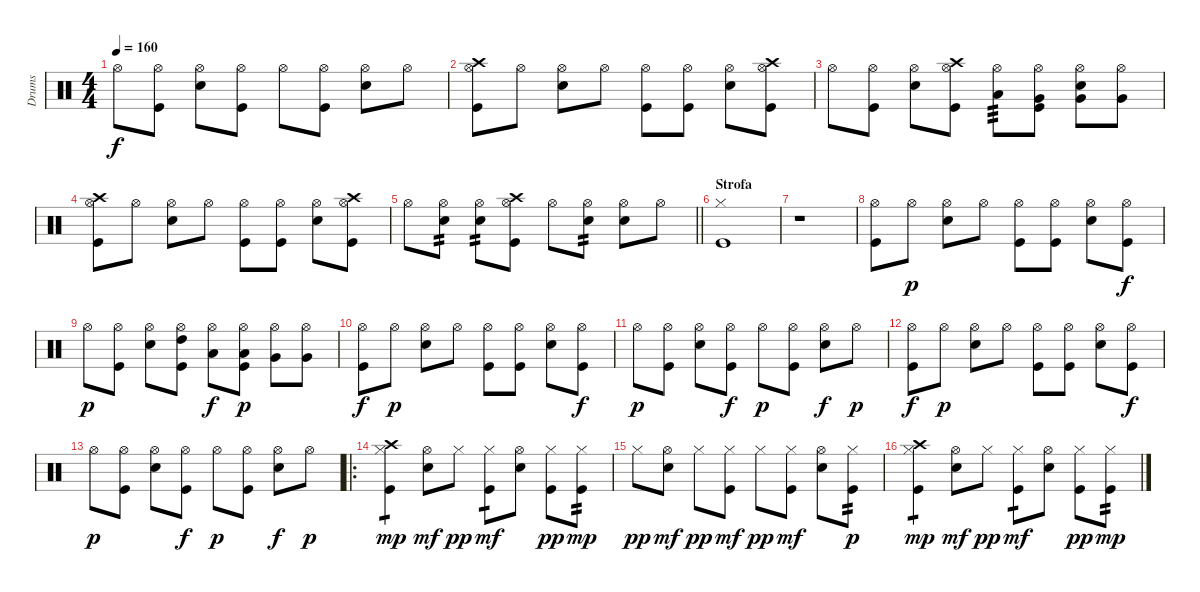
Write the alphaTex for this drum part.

\track ("Drums" "Drums") {instrument percussion}
\staff {score}
\articulation defaults
\ts (4 4)
\tempo 160
\clef neutral
\ks c "Hi-Hat (open)".8{dy f}
("Kick (hit)" "Hi-Hat (open)").8 ("Snare (hit) 2" "Hi-Hat (open)").8 ("Kick (hit)" "Hi-Hat (open)").8 "Hi-Hat (open)".8 ("Kick (hit)" "Hi-Hat (open)").8 ("Snare (hit) 2" "Hi-Hat (open)").8 "Hi-Hat (open)".8 |
("Kick (hit)" "Hi-Hat (open)" "Crash high (hit)").8 "Hi-Hat (open)".8 ("Snare (hit) 2" "Hi-Hat (open)").8 "Hi-Hat (open)".8 ("Kick (hit)" "Hi-Hat (open)").8 ("Kick (hit)" "Hi-Hat (open)").8 ("Snare (hit) 2" "Hi-Hat (open)").8 ("Kick (hit)" "Hi-Hat (open)" "Crash high (hit)").8 |
"Hi-Hat (open)".8 ("Kick (hit)" "Hi-Hat (open)").8 ("Snare (hit) 2" "Hi-Hat (open)").8 ("Kick (hit)" "Hi-Hat (open)" "Crash high (hit)").8 ("Low Tom (hit)" "Hi-Hat (open)").8{tp 3} ("Kick (hit)" "Very Low Tom (hit)" "Hi-Hat (open)").8 ("Snare (hit) 2" "Very Low Tom (hit)" "Hi-Hat (open)").8 ("Very Low Tom (hit)" "Hi-Hat (open)").8 |
("Kick (hit)" "Hi-Hat (open)" "Crash high (hit)").8 "Hi-Hat (open)".8 ("Snare (hit) 2" "Hi-Hat (open)").8 "Hi-Hat (open)".8 ("Kick (hit)" "Hi-Hat (open)").8 ("Kick (hit)" "Hi-Hat (open)").8 ("Snare (hit) 2" "Hi-Hat (open)").8 ("Kick (hit)" "Hi-Hat (open)" "Crash high (hit)").8 |
\barLineRight lightlight "Hi-Hat (open)".8
("Snare (hit) 2" "Hi-Hat (open)").8{tp 2} ("Snare (hit) 2" "Hi-Hat (open)").8{tp 2} ("Kick (hit)" "Hi-Hat (open)" "Crash high (hit)").8 "Hi-Hat (open)".8 ("Snare (hit) 2" "Hi-Hat (open)").8{tp 2} ("Snare (hit) 2" "Hi-Hat (open)").8 "Hi-Hat (open)".8 |
\section ("" "Strofa")
("Kick (hit)" "Hi-Hat (closed)").1 |
r.1 |
("Kick (hit)" "Hi-Hat (open)").8 "Hi-Hat (open)".8{dy p} ("Snare (hit) 2" "Hi-Hat (open)").8 "Hi-Hat (open)".8 ("Kick (hit)" "Hi-Hat (open)").8 ("Kick (hit)" "Hi-Hat (open)").8 ("Snare (hit) 2" "Hi-Hat (open)").8 ("Kick (hit)" "Hi-Hat (open)").8{dy f} |
"Hi-Hat (open)".8{dy p} ("Kick (hit)" "Hi-Hat (open)").8 ("Snare (hit) 2" "Hi-Hat (open)").8 ("Kick (hit)" "High Tom (hit)" "Hi-Hat (open)").8 ("Low Tom (hit)" "Hi-Hat (open)").8{dy f} ("Kick (hit)" "Low Tom (hit)" "Hi-Hat (open)").8{dy p} ("Very Low Tom (hit)" "Hi-Hat (open)").8 ("Very Low Tom (hit)" "Hi-Hat (open)").8 |
("Kick (hit)" "Hi-Hat (open)").8{dy f} "Hi-Hat (open)".8{dy p} ("Snare (hit) 2" "Hi-Hat (open)").8 "Hi-Hat (open)".8 ("Kick (hit)" "Hi-Hat (open)").8 ("Kick (hit)" "Hi-Hat (open)").8 ("Snare (hit) 2" "Hi-Hat (open)").8 ("Kick (hit)" "Hi-Hat (open)").8{dy f} |
"Hi-Hat (open)".8{dy p} ("Kick (hit)" "Hi-Hat (open)").8 ("Snare (hit) 2" "Hi-Hat (open)").8 ("Kick (hit)" "Hi-Hat (open)").8{dy f} "Hi-Hat (open)".8{dy p} ("Kick (hit)" "Hi-Hat (open)").8 ("Snare (hit) 2" "Hi-Hat (open)").8{dy f} "Hi-Hat (open)".8{dy p} |
("Kick (hit)" "Hi-Hat (open)").8{dy f} "Hi-Hat (open)".8{dy p} ("Snare (hit) 2" "Hi-Hat (open)").8 "Hi-Hat (open)".8 ("Kick (hit)" "Hi-Hat (open)").8 ("Kick (hit)" "Hi-Hat (open)").8 ("Snare (hit) 2" "Hi-Hat (open)").8 ("Kick (hit)" "Hi-Hat (open)").8{dy f} |
"Hi-Hat (open)".8{dy p} ("Kick (hit)" "Hi-Hat (open)").8 ("Snare (hit) 2" "Hi-Hat (open)").8 ("Kick (hit)" "Hi-Hat (open)").8{dy f} "Hi-Hat (open)".8{dy p} ("Kick (hit)" "Hi-Hat (open)").8 ("Snare (hit) 2" "Hi-Hat (open)").8{dy f} "Hi-Hat (open)".8{dy p} |
\ro
("Kick (hit)" "Hi-Hat (closed)" "Crash high (hit)").4{tp 1 dy mp} ("Snare (hit) 2" "Hi-Hat (open)").8{dy mf} "Hi-Hat (closed)".8{dy pp} ("Kick (hit)" "Hi-Hat (closed)").8{tp 1 dy mf} ("Snare (hit) 2" "Hi-Hat (open)").8 ("Kick (hit)" "Hi-Hat (closed)").8{dy pp} ("Kick (hit)" "Hi-Hat (closed)").8{tp 2 dy mp} |
"Hi-Hat (closed)".8{dy pp} ("Snare (hit) 2" "Hi-Hat (open)").8{dy mf} "Hi-Hat (closed)".8{dy pp} ("Kick (hit)" "Hi-Hat (closed)").8{dy mf} "Hi-Hat (closed)".8{dy pp} ("Kick (hit)" "Hi-Hat (closed)").8{dy mf} ("Snare (hit) 2" "Hi-Hat (open)").8 ("Kick (hit)" "Hi-Hat (closed)").8{tp 2 dy p} |
("Kick (hit)" "Hi-Hat (closed)" "Crash high (hit)").4{tp 1 dy mp} ("Snare (hit) 2" "Hi-Hat (open)").8{dy mf} "Hi-Hat (closed)".8{dy pp} ("Kick (hit)" "Hi-Hat (closed)").8{tp 1 dy mf} ("Snare (hit) 2" "Hi-Hat (open)").8 ("Kick (hit)" "Hi-Hat (closed)").8{dy pp} ("Kick (hit)" "Hi-Hat (closed)").8{tp 2 dy mp}
